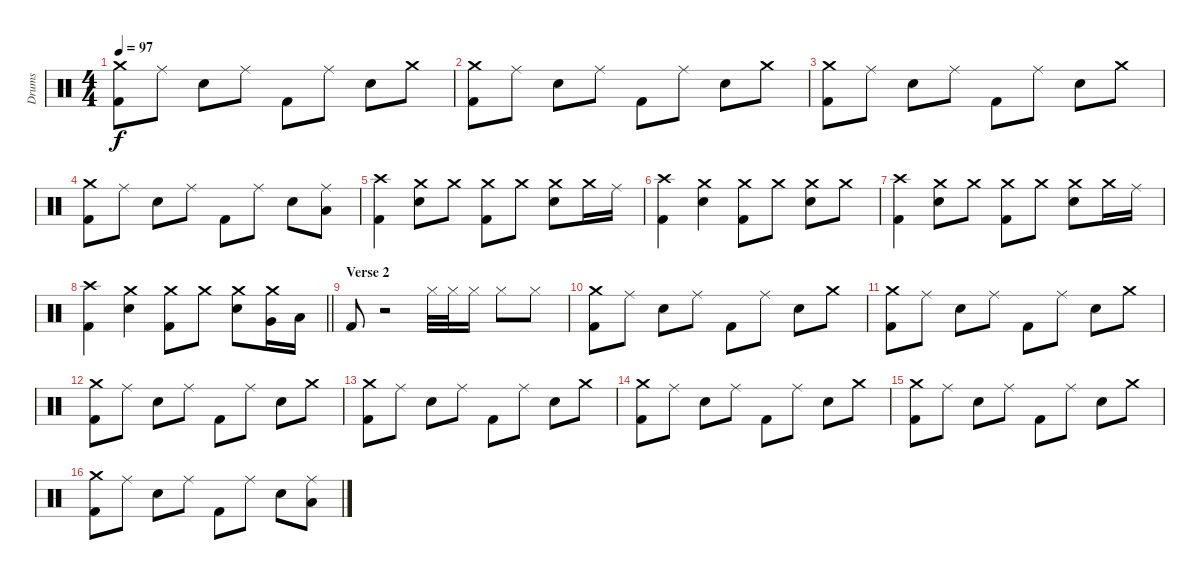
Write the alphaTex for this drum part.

\track ("Drums" "Drums") {instrument percussion}
\staff {score}
\articulation defaults
\ts (4 4)
\tempo 97
\clef neutral
\ks c
("Crash medium (hit)" "Kick (hit) 2").8{dy f} "Ride (middle)".8 "Snare (hit) 2".8 "Ride (middle)".8 "Kick (hit) 2".8 "Ride (middle)".8 "Snare (hit) 2".8 "Crash medium (hit)".8 |
("Crash medium (hit)" "Kick (hit) 2").8 "Ride (middle)".8 "Snare (hit) 2".8 "Ride (middle)".8 "Kick (hit) 2".8 "Ride (middle)".8 "Snare (hit) 2".8 "Crash medium (hit)".8 |
("Crash medium (hit)" "Kick (hit) 2").8 "Ride (middle)".8 "Snare (hit) 2".8 "Ride (middle)".8 "Kick (hit) 2".8 "Ride (middle)".8 "Snare (hit) 2".8 "Crash medium (hit)".8 |
("Crash medium (hit)" "Kick (hit) 2").8 "Ride (middle)".8 "Snare (hit) 2".8 "Ride (middle)".8 "Kick (hit) 2".8 "Ride (middle)".8 "Snare (hit) 2".8 ("Ride (middle)" "Low Floor Tom (hit)").8 |
("Crash high (hit)" "Kick (hit) 2").4 ("Crash medium (hit)" "Snare (hit) 2").8 "Crash medium (hit)".8 ("Crash medium (hit)" "Kick (hit) 2").8 "Crash medium (hit)".8 ("Crash medium (hit)" "Snare (hit) 2").8 "Crash medium (hit)".16 "Ride (middle)".16 |
("Crash high (hit)" "Kick (hit) 2").4 ("Crash medium (hit)" "Snare (hit) 2").4 ("Crash medium (hit)" "Kick (hit) 2").8 "Crash medium (hit)".8 ("Crash medium (hit)" "Snare (hit) 2").8 "Crash medium (hit)".8 |
("Crash high (hit)" "Kick (hit) 2").4 ("Crash medium (hit)" "Snare (hit) 2").8 "Crash medium (hit)".8 ("Crash medium (hit)" "Kick (hit) 2").8 "Crash medium (hit)".8 ("Crash medium (hit)" "Snare (hit) 2").8 "Crash medium (hit)".16 "Ride (middle)".16 |
\barLineRight lightlight
("Crash high (hit)" "Kick (hit) 2").4 ("Crash medium (hit)" "Snare (hit) 2").4 ("Crash medium (hit)" "Kick (hit) 2").8 "Crash medium (hit)".8 ("Crash medium (hit)" "Snare (hit) 2").8 ("Crash medium (hit)" "Very Low Tom (hit)").16 "Low Floor Tom (hit)".16 |
\section ("" "Verse 2")
"Kick (hit) 2".8 r.2 "Hi-Hat (closed)".32 "Hi-Hat (closed)".32 "Hi-Hat (closed)".16 "Hi-Hat (closed)".8 "Hi-Hat (closed)".8 |
("Crash medium (hit)" "Kick (hit) 2").8 "Ride (middle)".8 "Snare (hit) 2".8 "Ride (middle)".8 "Kick (hit) 2".8 "Ride (middle)".8 "Snare (hit) 2".8 "Crash medium (hit)".8 |
("Crash medium (hit)" "Kick (hit) 2").8 "Ride (middle)".8 "Snare (hit) 2".8 "Ride (middle)".8 "Kick (hit) 2".8 "Ride (middle)".8 "Snare (hit) 2".8 "Crash medium (hit)".8 |
("Crash medium (hit)" "Kick (hit) 2").8 "Ride (middle)".8 "Snare (hit) 2".8 "Ride (middle)".8 "Kick (hit) 2".8 "Ride (middle)".8 "Snare (hit) 2".8 "Crash medium (hit)".8 |
("Crash medium (hit)" "Kick (hit) 2").8 "Ride (middle)".8 "Snare (hit) 2".8 "Ride (middle)".8 "Kick (hit) 2".8 "Ride (middle)".8 "Snare (hit) 2".8 "Crash medium (hit)".8 |
("Crash medium (hit)" "Kick (hit) 2").8 "Ride (middle)".8 "Snare (hit) 2".8 "Ride (middle)".8 "Kick (hit) 2".8 "Ride (middle)".8 "Snare (hit) 2".8 "Crash medium (hit)".8 |
("Crash medium (hit)" "Kick (hit) 2").8 "Ride (middle)".8 "Snare (hit) 2".8 "Ride (middle)".8 "Kick (hit) 2".8 "Ride (middle)".8 "Snare (hit) 2".8 "Crash medium (hit)".8 |
("Crash medium (hit)" "Kick (hit) 2").8 "Ride (middle)".8 "Snare (hit) 2".8 "Ride (middle)".8 "Kick (hit) 2".8 "Ride (middle)".8 "Snare (hit) 2".8 ("Ride (middle)" "Low Floor Tom (hit)").8
